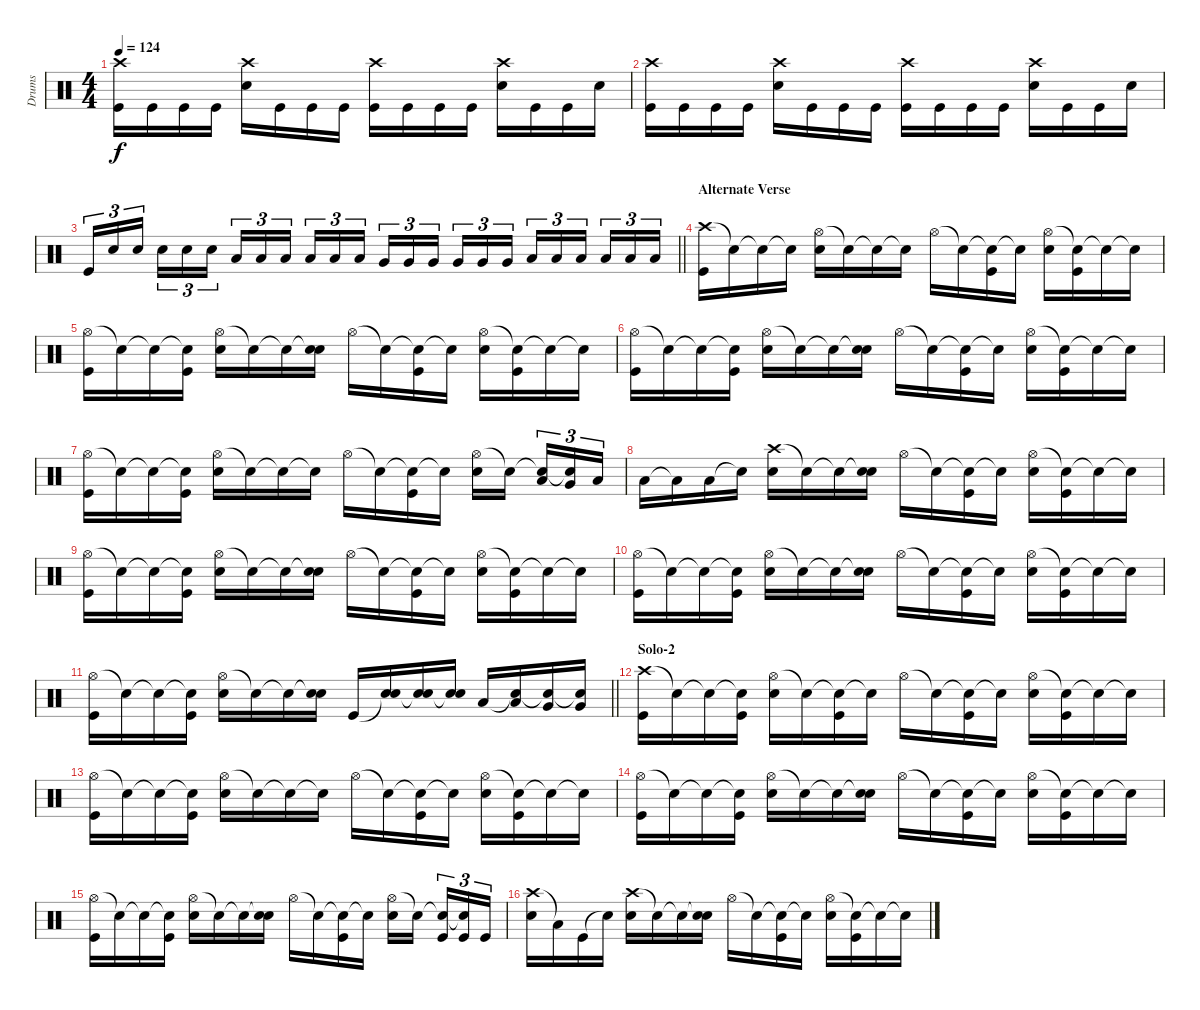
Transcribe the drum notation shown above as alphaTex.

\track ("Drums" "Drums") {instrument percussion}
\staff {score}
\articulation defaults
\ts (4 4)
\tempo 124
\clef neutral
\ks c
("Crash high (hit)" "Kick (hit)").16{dy f} "Kick (hit)".16 "Kick (hit)".16 "Kick (hit)".16 ("Crash high (hit)" "Electric Snare (hit)").16 "Kick (hit)".16 "Kick (hit)".16 "Kick (hit)".16 ("Crash high (hit)" "Kick (hit)").16 "Kick (hit)".16 "Kick (hit)".16 "Kick (hit)".16 ("Crash high (hit)" "Electric Snare (hit)").16 "Kick (hit)".16 "Kick (hit)".16 "Electric Snare (hit)".16 |
("Crash high (hit)" "Kick (hit)").16 "Kick (hit)".16 "Kick (hit)".16 "Kick (hit)".16 ("Crash high (hit)" "Electric Snare (hit)").16 "Kick (hit)".16 "Kick (hit)".16 "Kick (hit)".16 ("Crash high (hit)" "Kick (hit)").16 "Kick (hit)".16 "Kick (hit)".16 "Kick (hit)".16 ("Crash high (hit)" "Electric Snare (hit)").16 "Kick (hit)".16 "Kick (hit)".16 "Electric Snare (hit)".16 |
\barLineRight lightlight "Kick (hit)".16{tu (3 2)} "Electric Snare (hit)".16{tu (3 2)} "Electric Snare (hit)".16{tu (3 2)} "Electric Snare (hit)".16{tu (3 2)} "Electric Snare (hit)".16{tu (3 2)} "Electric Snare (hit)".16{tu (3 2)} "Low Tom (hit)".16{tu (3 2)} "Low Tom (hit)".16{tu (3 2)} "Low Tom (hit)".16{tu (3 2)} "Low Tom (hit)".16{tu (3 2)} "Low Tom (hit)".16{tu (3 2)} "Low Tom (hit)".16{tu (3 2)} "Very Low Tom (hit)".16{tu (3 2)} "Very Low Tom (hit)".16{tu (3 2)} "Very Low Tom (hit)".16{tu (3 2)} "Very Low Tom (hit)".16{tu (3 2)} "Very Low Tom (hit)".16{tu (3 2)} "Very Low Tom (hit)".16{tu (3 2)} "Low Floor Tom (hit)".16{tu (3 2)} "Low Floor Tom (hit)".16{tu (3 2)} "Low Floor Tom (hit)".16{tu (3 2)} "Low Floor Tom (hit)".16{tu (3 2)} "Low Floor Tom (hit)".16{tu (3 2)} "Low Floor Tom (hit)".16{tu (3 2)}
|
\section ("" "Alternate Verse")
("Crash high (hit)" "Kick (hit)").16 "Snare (hit)"{t}.16 "Snare (hit)"{t}.16 "Snare (hit)"{t}.16 ("Hi-Hat (open)" "Electric Snare (hit)").16 "Snare (hit)"{t}.16 "Snare (hit)"{t}.16 "Snare (hit)"{t}.16 "Hi-Hat (open)".16 "Snare (hit)"{t}.16 ("Snare (hit)"{t} "Kick (hit)").16 "Snare (hit)"{t}.16 ("Hi-Hat (open)" "Electric Snare (hit)").16 ("Snare (hit)"{t} "Kick (hit)").16 "Snare (hit)"{t}.16 "Snare (hit)"{t}.16 |
("Hi-Hat (open)" "Kick (hit)").16 "Snare (hit)"{t}.16 "Snare (hit)"{t}.16 ("Snare (hit)"{t} "Kick (hit)").16 ("Hi-Hat (open)" "Electric Snare (hit)").16 "Snare (hit)"{t}.16 "Snare (hit)"{t}.16 ("Snare (hit)"{t} "Electric Snare (hit)").16 "Hi-Hat (open)".16 "Snare (hit)"{t}.16 ("Snare (hit)"{t} "Kick (hit)").16 "Snare (hit)"{t}.16 ("Hi-Hat (open)" "Electric Snare (hit)").16 ("Snare (hit)"{t} "Kick (hit)").16 "Snare (hit)"{t}.16 "Snare (hit)"{t}.16 |
("Hi-Hat (open)" "Kick (hit)").16 "Snare (hit)"{t}.16 "Snare (hit)"{t}.16 ("Snare (hit)"{t} "Kick (hit)").16 ("Hi-Hat (open)" "Electric Snare (hit)").16 "Snare (hit)"{t}.16 "Snare (hit)"{t}.16 ("Snare (hit)"{t} "Electric Snare (hit)").16 "Hi-Hat (open)".16 "Snare (hit)"{t}.16 ("Snare (hit)"{t} "Kick (hit)").16 "Snare (hit)"{t}.16 ("Hi-Hat (open)" "Electric Snare (hit)").16 ("Snare (hit)"{t} "Kick (hit)").16 "Snare (hit)"{t}.16 "Snare (hit)"{t}.16 |
("Hi-Hat (open)" "Kick (hit)").16 "Snare (hit)"{t}.16 "Snare (hit)"{t}.16 ("Snare (hit)"{t} "Kick (hit)").16 ("Hi-Hat (open)" "Electric Snare (hit)").16 "Snare (hit)"{t}.16 "Snare (hit)"{t}.16 "Snare (hit)"{t}.16 "Hi-Hat (open)".16 "Snare (hit)"{t}.16 ("Snare (hit)"{t} "Kick (hit)").16 "Snare (hit)"{t}.16 ("Hi-Hat (open)" "Electric Snare (hit)").16 "Snare (hit)"{t}.16 ("Snare (hit)"{t} "Low Floor Tom (hit)").16{tu (3 2)} ("Snare (hit)"{t} "Very Low Tom (hit)").16{tu (3 2)} "Low Floor Tom (hit)".16{tu (3 2)} |
"Low Floor Tom (hit)".16 "Low Floor Tom (hit)"{t}.16 "Low Floor Tom (hit)".16 "Snare (hit)"{t}.16 ("Crash high (hit)" "Electric Snare (hit)").16 "Snare (hit)"{t}.16 "Snare (hit)"{t}.16 ("Snare (hit)"{t} "Electric Snare (hit)").16 "Hi-Hat (open)".16 "Snare (hit)"{t}.16 ("Snare (hit)"{t} "Kick (hit)").16 "Snare (hit)"{t}.16 ("Hi-Hat (open)" "Electric Snare (hit)").16 ("Snare (hit)"{t} "Kick (hit)").16 "Snare (hit)"{t}.16 "Snare (hit)"{t}.16 |
("Hi-Hat (open)" "Kick (hit)").16 "Snare (hit)"{t}.16 "Snare (hit)"{t}.16 ("Snare (hit)"{t} "Kick (hit)").16 ("Hi-Hat (open)" "Electric Snare (hit)").16 "Snare (hit)"{t}.16 "Snare (hit)"{t}.16 ("Snare (hit)"{t} "Electric Snare (hit)").16 "Hi-Hat (open)".16 "Snare (hit)"{t}.16 ("Snare (hit)"{t} "Kick (hit)").16 "Snare (hit)"{t}.16 ("Hi-Hat (open)" "Electric Snare (hit)").16 ("Snare (hit)"{t} "Kick (hit)").16 "Snare (hit)"{t}.16 "Snare (hit)"{t}.16 |
("Hi-Hat (open)" "Kick (hit)").16 "Snare (hit)"{t}.16 "Snare (hit)"{t}.16 ("Snare (hit)"{t} "Kick (hit)").16 ("Hi-Hat (open)" "Electric Snare (hit)").16 "Snare (hit)"{t}.16 "Snare (hit)"{t}.16 ("Snare (hit)"{t} "Electric Snare (hit)").16 "Hi-Hat (open)".16 "Snare (hit)"{t}.16 ("Snare (hit)"{t} "Kick (hit)").16 "Snare (hit)"{t}.16 ("Hi-Hat (open)" "Electric Snare (hit)").16 ("Snare (hit)"{t} "Kick (hit)").16 "Snare (hit)"{t}.16 "Snare (hit)"{t}.16 |
\barLineRight lightlight
("Hi-Hat (open)" "Kick (hit)").16 "Snare (hit)"{t}.16 "Snare (hit)"{t}.16 ("Snare (hit)"{t} "Kick (hit)").16 ("Hi-Hat (open)" "Electric Snare (hit)").16 "Snare (hit)"{t}.16 "Snare (hit)"{t}.16 ("Snare (hit)"{t} "Electric Snare (hit)").16 "Kick (hit)".16 ("Snare (hit)"{t} "Electric Snare (hit)").16 ("Snare (hit)"{t} "Electric Snare (hit)").16 ("Snare (hit)"{t} "Electric Snare (hit)").16 "Low Tom (hit)".16 ("Snare (hit)"{t} "Low Tom (hit)").16 ("Snare (hit)"{t} "Very Low Tom (hit)").16 ("Snare (hit)"{t} "Very Low Tom (hit)").16 |
\section ("" "Solo-2")
("Crash high (hit)" "Kick (hit)").16 "Snare (hit)"{t}.16 "Snare (hit)"{t}.16 ("Snare (hit)"{t} "Kick (hit)").16 ("Hi-Hat (open)" "Electric Snare (hit)").16 "Snare (hit)"{t}.16 ("Snare (hit)"{t} "Kick (hit)").16 "Snare (hit)"{t}.16 "Hi-Hat (open)".16 "Snare (hit)"{t}.16 ("Snare (hit)"{t} "Kick (hit)").16 "Snare (hit)"{t}.16 ("Hi-Hat (open)" "Electric Snare (hit)").16 ("Snare (hit)"{t} "Kick (hit)").16 "Snare (hit)"{t}.16 "Snare (hit)"{t}.16 |
("Hi-Hat (open)" "Kick (hit)").16 "Snare (hit)"{t}.16 "Snare (hit)"{t}.16 ("Snare (hit)"{t} "Kick (hit)").16 ("Hi-Hat (open)" "Electric Snare (hit)").16 "Snare (hit)"{t}.16 "Snare (hit)"{t}.16 "Snare (hit)"{t}.16 "Hi-Hat (open)".16 "Snare (hit)"{t}.16 ("Snare (hit)"{t} "Kick (hit)").16 "Snare (hit)"{t}.16 ("Hi-Hat (open)" "Electric Snare (hit)").16 ("Snare (hit)"{t} "Kick (hit)").16 "Snare (hit)"{t}.16 "Snare (hit)"{t}.16 |
("Hi-Hat (open)" "Kick (hit)").16 "Snare (hit)"{t}.16 "Snare (hit)"{t}.16 ("Snare (hit)"{t} "Kick (hit)").16 ("Hi-Hat (open)" "Electric Snare (hit)").16 "Snare (hit)"{t}.16 "Snare (hit)"{t}.16 ("Snare (hit)"{t} "Electric Snare (hit)").16 "Hi-Hat (open)".16 "Snare (hit)"{t}.16 ("Snare (hit)"{t} "Kick (hit)").16 "Snare (hit)"{t}.16 ("Hi-Hat (open)" "Electric Snare (hit)").16 ("Snare (hit)"{t} "Kick (hit)").16 "Snare (hit)"{t}.16 "Snare (hit)"{t}.16 |
("Hi-Hat (open)" "Kick (hit)").16 "Snare (hit)"{t}.16 "Snare (hit)"{t}.16 ("Snare (hit)"{t} "Kick (hit)").16 ("Hi-Hat (open)" "Electric Snare (hit)").16 "Snare (hit)"{t}.16 "Snare (hit)"{t}.16 ("Snare (hit)"{t} "Electric Snare (hit)").16 "Hi-Hat (open)".16 "Snare (hit)"{t}.16 ("Snare (hit)"{t} "Kick (hit)").16 "Snare (hit)"{t}.16 ("Hi-Hat (open)" "Electric Snare (hit)").16 "Snare (hit)"{t}.16 ("Snare (hit)"{t} "Kick (hit)").16{tu (3 2)} ("Snare (hit)"{t} "Kick (hit)").16{tu (3 2)} "Kick (hit)".16{tu (3 2)} |
("Crash high (hit)" "Electric Snare (hit)").16 "Low Floor Tom (hit)"{t}.16 "Kick (hit)".16 "Snare (hit)"{t}.16 ("Crash high (hit)" "Electric Snare (hit)").16 "Snare (hit)"{t}.16 "Snare (hit)"{t}.16 ("Snare (hit)"{t} "Electric Snare (hit)").16 "Hi-Hat (open)".16 "Snare (hit)"{t}.16 ("Snare (hit)"{t} "Kick (hit)").16 "Snare (hit)"{t}.16 ("Hi-Hat (open)" "Electric Snare (hit)").16 ("Snare (hit)"{t} "Kick (hit)").16 "Snare (hit)"{t}.16 "Snare (hit)"{t}.16
